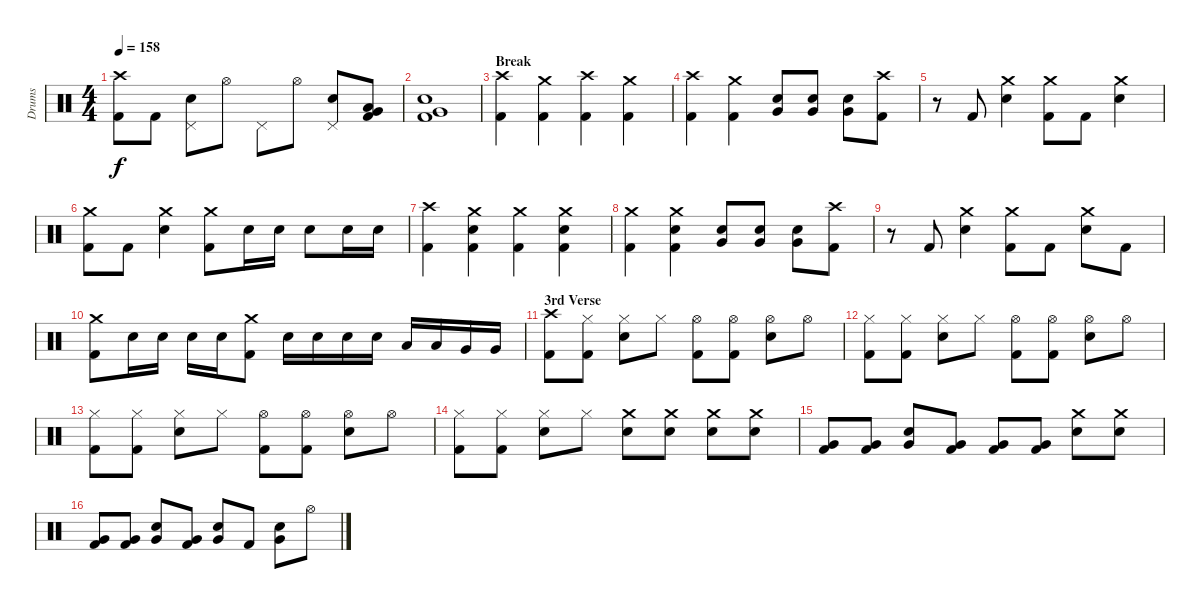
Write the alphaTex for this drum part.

\track ("Drums" "Drums") {instrument percussion}
\staff {score}
\articulation defaults
\ts (4 4)
\tempo 158
\clef neutral
\ks c
("Crash high (hit)" "Kick (hit) 2").8{dy f} "Kick (hit) 2".8 ("Pedal Hi-Hat (hit)" "Snare (hit) 2").8 "Hi-Hat (open)".8 "Pedal Hi-Hat (hit)".8 "Hi-Hat (open)".8 ("Pedal Hi-Hat (hit)" "Snare (hit) 2").8 ("Low Tom (hit)" "Very Low Tom (hit)" "Kick (hit) 2").8 |
("Snare (hit) 2" "Very Low Tom (hit)" "Kick (hit) 2").1 |
\section ("" "Break")
("Crash high (hit)" "Kick (hit) 2").4 ("Crash medium (hit)" "Kick (hit) 2").4 ("Crash high (hit)" "Kick (hit) 2").4 ("Crash medium (hit)" "Kick (hit) 2").4 |
("Crash high (hit)" "Kick (hit) 2").4 ("Crash medium (hit)" "Kick (hit) 2").4 ("Snare (hit) 2" "Very Low Tom (hit)").8 ("Snare (hit) 2" "Very Low Tom (hit)").8 ("Snare (hit) 2" "Very Low Tom (hit)").8 ("Crash high (hit)" "Kick (hit) 2").8 |
r.8 "Kick (hit) 2".8 ("Crash medium (hit)" "Snare (hit) 2").4 ("Crash medium (hit)" "Kick (hit) 2").8 "Kick (hit) 2".8 ("Crash medium (hit)" "Snare (hit) 2").4 |
("Crash medium (hit)" "Kick (hit) 2").8 "Kick (hit) 2".8 ("Crash medium (hit)" "Snare (hit) 2").4 ("Crash medium (hit)" "Kick (hit) 2").8 "Snare (hit) 2".16 "Snare (hit) 2".16 "Snare (hit) 2".8 "Snare (hit) 2".16 "Snare (hit) 2".16 |
("Crash high (hit)" "Kick (hit) 2").4 ("Crash medium (hit)" "Snare (hit) 2" "Kick (hit) 2").4 ("Crash medium (hit)" "Kick (hit) 2").4 ("Crash medium (hit)" "Snare (hit) 2" "Kick (hit) 2").4 |
("Crash medium (hit)" "Kick (hit) 2").4 ("Crash medium (hit)" "Snare (hit) 2" "Kick (hit) 2").4 ("Snare (hit) 2" "Very Low Tom (hit)").8 ("Snare (hit) 2" "Very Low Tom (hit)").8 ("Snare (hit) 2" "Very Low Tom (hit)").8 ("Crash high (hit)" "Kick (hit) 2").8 |
r.8 "Kick (hit) 2".8 ("Crash medium (hit)" "Snare (hit) 2").4 ("Crash medium (hit)" "Kick (hit) 2").8 "Kick (hit) 2".8 ("Crash medium (hit)" "Snare (hit) 2").8 "Kick (hit) 2".8 |
("Crash medium (hit)" "Kick (hit) 2").8 "Snare (hit) 2".16 "Snare (hit) 2".16 "Snare (hit) 2".16 "Snare (hit) 2".16 ("Crash medium (hit)" "Kick (hit) 2").8 "Snare (hit) 2".16 "Snare (hit) 2".16 "Snare (hit) 2".16 "Snare (hit) 2".16 "Low Tom (hit)".16 "Low Tom (hit)".16 "Very Low Tom (hit)".16 "Very Low Tom (hit)".16 |
\section ("" "3rd Verse")
("Crash high (hit)" "Kick (hit) 2").8 ("Hi-Hat (closed)" "Kick (hit) 2").8 ("Hi-Hat (closed)" "Snare (hit) 2").8 "Hi-Hat (closed)".8 ("Hi-Hat (open)" "Kick (hit) 2").8 ("Hi-Hat (open)" "Kick (hit) 2").8 ("Hi-Hat (open)" "Snare (hit) 2").8 "Hi-Hat (open)".8 |
("Hi-Hat (closed)" "Kick (hit) 2").8 ("Hi-Hat (closed)" "Kick (hit) 2").8 ("Hi-Hat (closed)" "Snare (hit) 2").8 "Hi-Hat (closed)".8 ("Hi-Hat (open)" "Kick (hit) 2").8 ("Hi-Hat (open)" "Kick (hit) 2").8 ("Hi-Hat (open)" "Snare (hit) 2").8 "Hi-Hat (open)".8 |
("Hi-Hat (closed)" "Kick (hit) 2").8 ("Hi-Hat (closed)" "Kick (hit) 2").8 ("Hi-Hat (closed)" "Snare (hit) 2").8 "Hi-Hat (closed)".8 ("Hi-Hat (open)" "Kick (hit) 2").8 ("Hi-Hat (open)" "Kick (hit) 2").8 ("Hi-Hat (open)" "Snare (hit) 2").8 "Hi-Hat (open)".8 |
("Hi-Hat (closed)" "Kick (hit) 2").8 ("Hi-Hat (closed)" "Kick (hit) 2").8 ("Hi-Hat (closed)" "Snare (hit) 2").8 "Hi-Hat (closed)".8 ("Crash medium (hit)" "Snare (hit) 2").8 ("Crash medium (hit)" "Snare (hit) 2").8 ("Crash medium (hit)" "Snare (hit) 2").8 ("Crash medium (hit)" "Snare (hit) 2").8 |
("Very Low Tom (hit)" "Kick (hit) 2").8 ("Very Low Tom (hit)" "Kick (hit) 2").8 ("Snare (hit) 2" "Very Low Tom (hit)").8 ("Very Low Tom (hit)" "Kick (hit) 2").8 ("Very Low Tom (hit)" "Kick (hit) 2").8 ("Very Low Tom (hit)" "Kick (hit) 2").8 ("Crash medium (hit)" "Snare (hit) 2").8 ("Crash medium (hit)" "Snare (hit) 2").8 |
("Very Low Tom (hit)" "Kick (hit) 2").8 ("Very Low Tom (hit)" "Kick (hit) 2").8 ("Snare (hit) 2" "Very Low Tom (hit)").8 ("Very Low Tom (hit)" "Kick (hit) 2").8 ("Snare (hit) 2" "Very Low Tom (hit)").8 "Kick (hit) 2".8 ("Snare (hit) 2" "Very Low Tom (hit)").8 "Hi-Hat (open)".8
